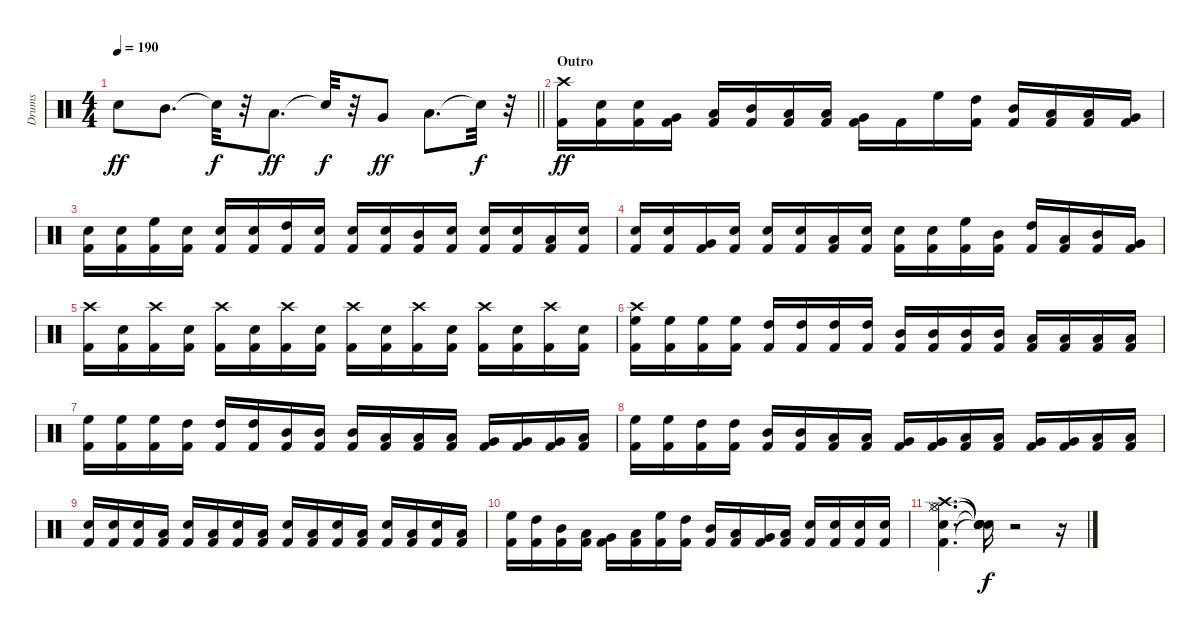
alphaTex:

\track ("Drums" "Drums") {instrument percussion}
\staff {score}
\articulation defaults
\ts (4 4)
\tempo 190
\clef neutral
\barLineRight lightlight
\ks c "Snare (hit) 2".8{dy ff} "Mid Tom (hit)".8{d} "Snare (hit)"{t}.32{dy f}
r.32 "Low Tom (hit)".8{d dy ff} "Snare (hit)"{t}.32{dy f} r.32 "Very Low Tom (hit)".8{dy ff} "Low Floor Tom (hit)".8{d} "Snare (hit)"{t}.32{dy f} r.32 |
\section ("" "Outro")
("Kick (hit) 2" "Crash high (hit)").16{dy ff} ("Kick (hit) 2" "Snare (hit) 2").16 ("Kick (hit) 2" "Snare (hit) 2").16 ("Kick (hit) 2" "Very Low Tom (hit)").16 ("Kick (hit) 2" "Low Floor Tom (hit)").16 ("Kick (hit) 2" "Mid Tom (hit)").16 ("Kick (hit) 2" "Low Tom (hit)").16 ("Kick (hit) 2" "Low Tom (hit)").16 ("Kick (hit) 2" "Very Low Tom (hit)").16 "Kick (hit) 2".16 "High Floor Tom (hit)".16 ("Kick (hit) 2" "High Tom (hit)").16 ("Kick (hit) 2" "Mid Tom (hit)").16 ("Kick (hit) 2" "Low Tom (hit)").16 ("Kick (hit) 2" "Low Floor Tom (hit)").16 ("Kick (hit) 2" "Very Low Tom (hit)").16 |
("Kick (hit) 2" "Snare (hit) 2").16 ("Kick (hit) 2" "Snare (hit) 2").16 ("Kick (hit) 2" "High Floor Tom (hit)").16 ("Kick (hit) 2" "Snare (hit) 2").16 ("Kick (hit) 2" "Snare (hit) 2").16 ("Kick (hit) 2" "Snare (hit) 2").16 ("Kick (hit) 2" "High Tom (hit)").16 ("Kick (hit) 2" "Snare (hit) 2").16 ("Kick (hit) 2" "Snare (hit) 2").16 ("Kick (hit) 2" "Snare (hit) 2").16 ("Kick (hit) 2" "Mid Tom (hit)").16 ("Kick (hit) 2" "Snare (hit) 2").16 ("Kick (hit) 2" "Snare (hit) 2").16 ("Kick (hit) 2" "Snare (hit) 2").16 ("Kick (hit) 2" "Low Tom (hit)").16 ("Kick (hit) 2" "Snare (hit) 2").16 |
("Kick (hit) 2" "Snare (hit) 2").16 ("Kick (hit) 2" "Snare (hit) 2").16 ("Kick (hit) 2" "Very Low Tom (hit)").16 ("Kick (hit) 2" "Snare (hit) 2").16 ("Kick (hit) 2" "Snare (hit) 2").16 ("Kick (hit) 2" "Snare (hit) 2").16 ("Kick (hit) 2" "Low Floor Tom (hit)").16 ("Kick (hit) 2" "Snare (hit) 2").16 ("Kick (hit) 2" "Snare (hit) 2").16 ("Kick (hit) 2" "Snare (hit) 2").16 ("Kick (hit) 2" "High Floor Tom (hit)").16 ("Kick (hit) 2" "Mid Tom (hit)").16 ("Kick (hit) 2" "High Tom (hit)").16 ("Kick (hit) 2" "Low Tom (hit)").16 ("Kick (hit) 2" "Mid Tom (hit)").16 ("Kick (hit) 2" "Very Low Tom (hit)").16 |
("Kick (hit) 2" "Crash high (hit)").16 ("Kick (hit) 2" "Snare (hit) 2").16 ("Kick (hit) 2" "Crash high (hit)").16 ("Kick (hit) 2" "Snare (hit) 2").16 ("Kick (hit) 2" "Crash high (hit)").16 ("Kick (hit) 2" "Snare (hit) 2").16 ("Kick (hit) 2" "Crash high (hit)").16 ("Kick (hit) 2" "Snare (hit) 2").16 ("Kick (hit) 2" "Crash high (hit)").16 ("Kick (hit) 2" "Snare (hit) 2").16 ("Kick (hit) 2" "Crash high (hit)").16 ("Kick (hit) 2" "Snare (hit) 2").16 ("Kick (hit) 2" "Crash high (hit)").16 ("Kick (hit) 2" "Snare (hit) 2").16 ("Kick (hit) 2" "Crash high (hit)").16 ("Kick (hit) 2" "Snare (hit) 2").16 |
("Kick (hit) 2" "Crash high (hit)" "High Floor Tom (hit)").16 ("Kick (hit) 2" "High Floor Tom (hit)").16 ("Kick (hit) 2" "High Floor Tom (hit)").16 ("Kick (hit) 2" "High Floor Tom (hit)").16 ("Kick (hit) 2" "High Tom (hit)").16 ("Kick (hit) 2" "High Tom (hit)").16 ("Kick (hit) 2" "High Tom (hit)").16 ("Kick (hit) 2" "High Tom (hit)").16 ("Kick (hit) 2" "Mid Tom (hit)").16 ("Kick (hit) 2" "Mid Tom (hit)").16 ("Kick (hit) 2" "Mid Tom (hit)").16 ("Kick (hit) 2" "Mid Tom (hit)").16 ("Kick (hit) 2" "Low Tom (hit)").16 ("Kick (hit) 2" "Low Tom (hit)").16 ("Kick (hit) 2" "Low Tom (hit)").16 ("Kick (hit) 2" "Low Tom (hit)").16 |
("Kick (hit) 2" "High Floor Tom (hit)").16 ("Kick (hit) 2" "High Floor Tom (hit)").16 ("Kick (hit) 2" "High Floor Tom (hit)").16 ("Kick (hit) 2" "High Tom (hit)").16 ("Kick (hit) 2" "High Tom (hit)").16 ("Kick (hit) 2" "High Tom (hit)").16 ("Kick (hit) 2" "Mid Tom (hit)").16 ("Kick (hit) 2" "Mid Tom (hit)").16 ("Kick (hit) 2" "Mid Tom (hit)").16 ("Kick (hit) 2" "Low Tom (hit)").16 ("Kick (hit) 2" "Low Tom (hit)").16 ("Kick (hit) 2" "Low Tom (hit)").16 ("Kick (hit) 2" "Very Low Tom (hit)").16 ("Kick (hit) 2" "Very Low Tom (hit)").16 ("Kick (hit) 2" "Very Low Tom (hit)").16 ("Kick (hit) 2" "Low Floor Tom (hit)").16 |
("Kick (hit) 2" "High Floor Tom (hit)").16 ("Kick (hit) 2" "High Floor Tom (hit)").16 ("Kick (hit) 2" "High Tom (hit)").16 ("Kick (hit) 2" "High Tom (hit)").16 ("Kick (hit) 2" "Mid Tom (hit)").16 ("Kick (hit) 2" "Mid Tom (hit)").16 ("Kick (hit) 2" "Low Tom (hit)").16 ("Kick (hit) 2" "Low Tom (hit)").16 ("Kick (hit) 2" "Very Low Tom (hit)").16 ("Kick (hit) 2" "Very Low Tom (hit)").16 ("Kick (hit) 2" "Low Floor Tom (hit)").16 ("Kick (hit) 2" "Low Floor Tom (hit)").16 ("Kick (hit) 2" "Very Low Tom (hit)").16 ("Kick (hit) 2" "Very Low Tom (hit)").16 ("Kick (hit) 2" "Low Floor Tom (hit)").16 ("Kick (hit) 2" "Low Floor Tom (hit)").16 |
("Kick (hit) 2" "Snare (hit) 2").16 ("Kick (hit) 2" "Snare (hit) 2").16 ("Kick (hit) 2" "Snare (hit) 2").16 ("Kick (hit) 2" "Low Floor Tom (hit)").16 ("Kick (hit) 2" "Snare (hit) 2").16 ("Kick (hit) 2" "Low Floor Tom (hit)").16 ("Kick (hit) 2" "Snare (hit) 2").16 ("Kick (hit) 2" "Low Floor Tom (hit)").16 ("Kick (hit) 2" "Snare (hit) 2").16 ("Kick (hit) 2" "Low Floor Tom (hit)").16 ("Kick (hit) 2" "Snare (hit) 2").16 ("Kick (hit) 2" "Low Floor Tom (hit)").16 ("Kick (hit) 2" "Snare (hit) 2").16 ("Kick (hit) 2" "Low Floor Tom (hit)").16 ("Kick (hit) 2" "Snare (hit) 2").16 ("Kick (hit) 2" "Low Floor Tom (hit)").16 |
("Kick (hit) 2" "High Floor Tom (hit)").16 ("Kick (hit) 2" "High Tom (hit)").16 ("Kick (hit) 2" "Mid Tom (hit)").16 ("Kick (hit) 2" "Low Tom (hit)").16 ("Kick (hit) 2" "Very Low Tom (hit)").16 ("Kick (hit) 2" "Low Floor Tom (hit)").16 ("Kick (hit) 2" "High Floor Tom (hit)").16 ("Kick (hit) 2" "High Tom (hit)").16 ("Kick (hit) 2" "Mid Tom (hit)").16 ("Kick (hit) 2" "Low Tom (hit)").16 ("Kick (hit) 2" "Very Low Tom (hit)").16 ("Kick (hit) 2" "Low Floor Tom (hit)").16 ("Kick (hit) 2" "Snare (hit) 2").16 ("Kick (hit) 2" "Snare (hit) 2").16 ("Kick (hit) 2" "Snare (hit) 2").16 ("Kick (hit) 2" "Snare (hit) 2").16 |
("Kick (hit) 2" "Snare (hit) 2" "Hi-Hat (closed)" "Hi-Hat (open)" "Crash high (hit)").4{d} ("Snare (hit)"{t} "Snare (hit)"{t} "Snare (hit)"{t} "Snare (hit)"{t} "Snare (hit)"{t}).16{dy f} r.2 r.16
